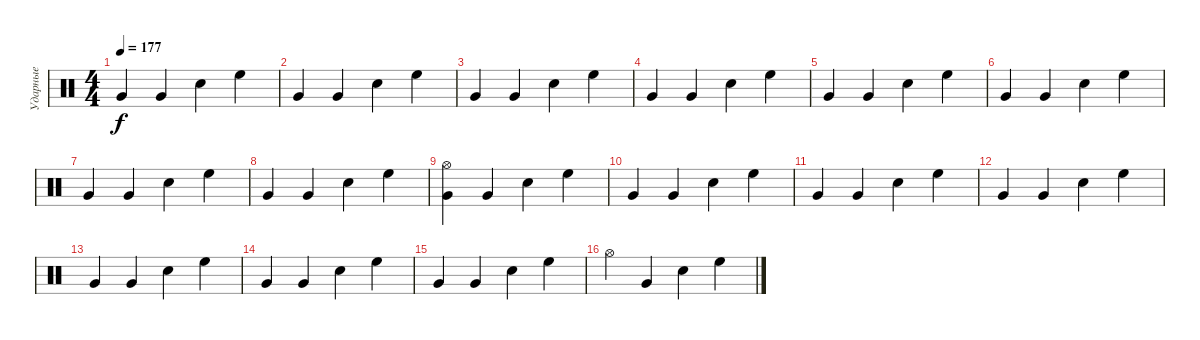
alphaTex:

\track ("Ударные" "Ударные") {instrument percussion}
\staff {score}
\articulation defaults
\ts (4 4)
\tempo 177
\clef neutral
\ks c "Very Low Tom (hit)".4{dy f} "Very Low Tom (hit)".4 "Electric Snare (hit)".4 "High Floor Tom (hit)".4
|
"Very Low Tom (hit)".4 "Very Low Tom (hit)".4 "Electric Snare (hit)".4 "High Floor Tom (hit)".4 |
"Very Low Tom (hit)".4 "Very Low Tom (hit)".4 "Electric Snare (hit)".4 "High Floor Tom (hit)".4 |
"Very Low Tom (hit)".4 "Very Low Tom (hit)".4 "Electric Snare (hit)".4 "High Floor Tom (hit)".4 |
"Very Low Tom (hit)".4 "Very Low Tom (hit)".4 "Electric Snare (hit)".4 "High Floor Tom (hit)".4 |
"Very Low Tom (hit)".4 "Very Low Tom (hit)".4 "Electric Snare (hit)".4 "High Floor Tom (hit)".4 |
"Very Low Tom (hit)".4 "Very Low Tom (hit)".4 "Electric Snare (hit)".4 "High Floor Tom (hit)".4 |
"Very Low Tom (hit)".4 "Very Low Tom (hit)".4 "Electric Snare (hit)".4 "High Floor Tom (hit)".4 |
("Hi-Hat (open)" "Very Low Tom (hit)").4 "Very Low Tom (hit)".4 "Electric Snare (hit)".4 "High Floor Tom (hit)".4 |
"Very Low Tom (hit)".4 "Very Low Tom (hit)".4 "Electric Snare (hit)".4 "High Floor Tom (hit)".4 |
"Very Low Tom (hit)".4 "Very Low Tom (hit)".4 "Electric Snare (hit)".4 "High Floor Tom (hit)".4 |
"Very Low Tom (hit)".4 "Very Low Tom (hit)".4 "Electric Snare (hit)".4 "High Floor Tom (hit)".4 |
"Very Low Tom (hit)".4 "Very Low Tom (hit)".4 "Electric Snare (hit)".4 "High Floor Tom (hit)".4 |
"Very Low Tom (hit)".4 "Very Low Tom (hit)".4 "Electric Snare (hit)".4 "High Floor Tom (hit)".4 |
"Very Low Tom (hit)".4 "Very Low Tom (hit)".4 "Electric Snare (hit)".4 "High Floor Tom (hit)".4 |
"Hi-Hat (open)".4 "Very Low Tom (hit)".4 "Electric Snare (hit)".4 "High Floor Tom (hit)".4
